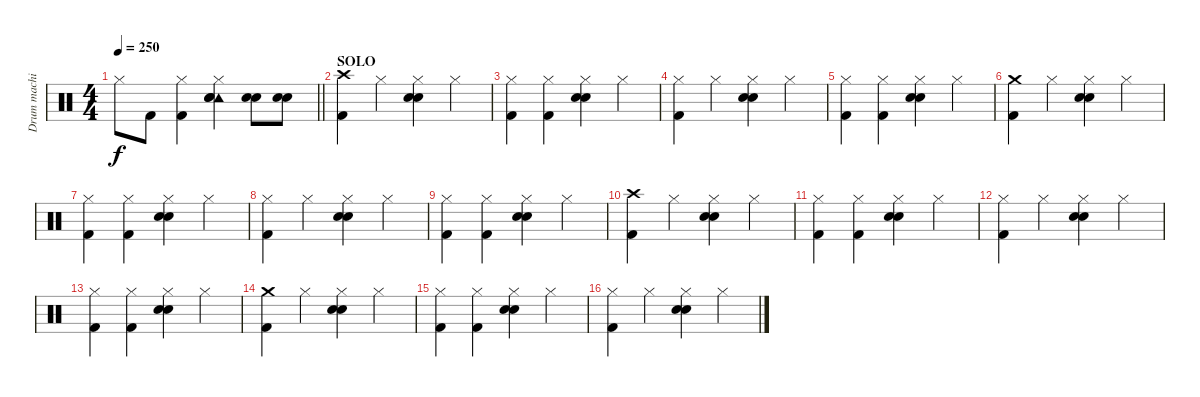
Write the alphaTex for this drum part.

\track ("Drum machine" "Drum machi") {instrument percussion}
\staff {score}
\articulation defaults
\ts (4 4)
\tempo 250
\clef neutral
\barLineRight lightlight
\ks c "Hi-Hat (closed)".8{dy f} "Kick (hit) 2".8
("Hi-Hat (closed)" "Kick (hit) 2").4 ("Tambourine (hit)" "Hi-Hat (closed)" "Electric Snare (hit)" "Snare (hit) 2").4 ("Electric Snare (hit)" "Snare (hit) 2").8 ("Electric Snare (hit)" "Snare (hit) 2").8 |
\section ("" "SOLO")
("Crash high (hit)" "Kick (hit) 2").4 "Hi-Hat (closed)".4 ("Hi-Hat (closed)" "Electric Snare (hit)" "Snare (hit) 2").4 "Hi-Hat (closed)".4 |
("Hi-Hat (closed)" "Kick (hit) 2").4 ("Hi-Hat (closed)" "Kick (hit) 2").4 ("Hi-Hat (closed)" "Electric Snare (hit)" "Snare (hit) 2").4 "Hi-Hat (closed)".4 |
("Hi-Hat (closed)" "Kick (hit) 2").4 "Hi-Hat (closed)".4 ("Hi-Hat (closed)" "Electric Snare (hit)" "Snare (hit) 2").4 "Hi-Hat (closed)".4 |
("Hi-Hat (closed)" "Kick (hit) 2").4 ("Hi-Hat (closed)" "Kick (hit) 2").4 ("Hi-Hat (closed)" "Electric Snare (hit)" "Snare (hit) 2").4 "Hi-Hat (closed)".4 |
("Crash medium (hit)" "Kick (hit) 2").4 "Hi-Hat (closed)".4 ("Hi-Hat (closed)" "Electric Snare (hit)" "Snare (hit) 2").4 "Hi-Hat (closed)".4 |
("Hi-Hat (closed)" "Kick (hit) 2").4 ("Hi-Hat (closed)" "Kick (hit) 2").4 ("Hi-Hat (closed)" "Electric Snare (hit)" "Snare (hit) 2").4 "Hi-Hat (closed)".4 |
("Hi-Hat (closed)" "Kick (hit) 2").4 "Hi-Hat (closed)".4 ("Hi-Hat (closed)" "Electric Snare (hit)" "Snare (hit) 2").4 "Hi-Hat (closed)".4 |
("Hi-Hat (closed)" "Kick (hit) 2").4 ("Hi-Hat (closed)" "Kick (hit) 2").4 ("Hi-Hat (closed)" "Electric Snare (hit)" "Snare (hit) 2").4 "Hi-Hat (closed)".4 |
("Crash high (hit)" "Kick (hit) 2").4 "Hi-Hat (closed)".4 ("Hi-Hat (closed)" "Electric Snare (hit)" "Snare (hit) 2").4 "Hi-Hat (closed)".4 |
("Hi-Hat (closed)" "Kick (hit) 2").4 ("Hi-Hat (closed)" "Kick (hit) 2").4 ("Hi-Hat (closed)" "Electric Snare (hit)" "Snare (hit) 2").4 "Hi-Hat (closed)".4 |
("Hi-Hat (closed)" "Kick (hit) 2").4 "Hi-Hat (closed)".4 ("Hi-Hat (closed)" "Electric Snare (hit)" "Snare (hit) 2").4 "Hi-Hat (closed)".4 |
("Hi-Hat (closed)" "Kick (hit) 2").4 ("Hi-Hat (closed)" "Kick (hit) 2").4 ("Hi-Hat (closed)" "Electric Snare (hit)" "Snare (hit) 2").4 "Hi-Hat (closed)".4 |
("Crash medium (hit)" "Kick (hit) 2").4 "Hi-Hat (closed)".4 ("Hi-Hat (closed)" "Electric Snare (hit)" "Snare (hit) 2").4 "Hi-Hat (closed)".4 |
("Hi-Hat (closed)" "Kick (hit) 2").4 ("Hi-Hat (closed)" "Kick (hit) 2").4 ("Hi-Hat (closed)" "Electric Snare (hit)" "Snare (hit) 2").4 "Hi-Hat (closed)".4 |
("Hi-Hat (closed)" "Kick (hit) 2").4 "Hi-Hat (closed)".4 ("Hi-Hat (closed)" "Electric Snare (hit)" "Snare (hit) 2").4 "Hi-Hat (closed)".4
